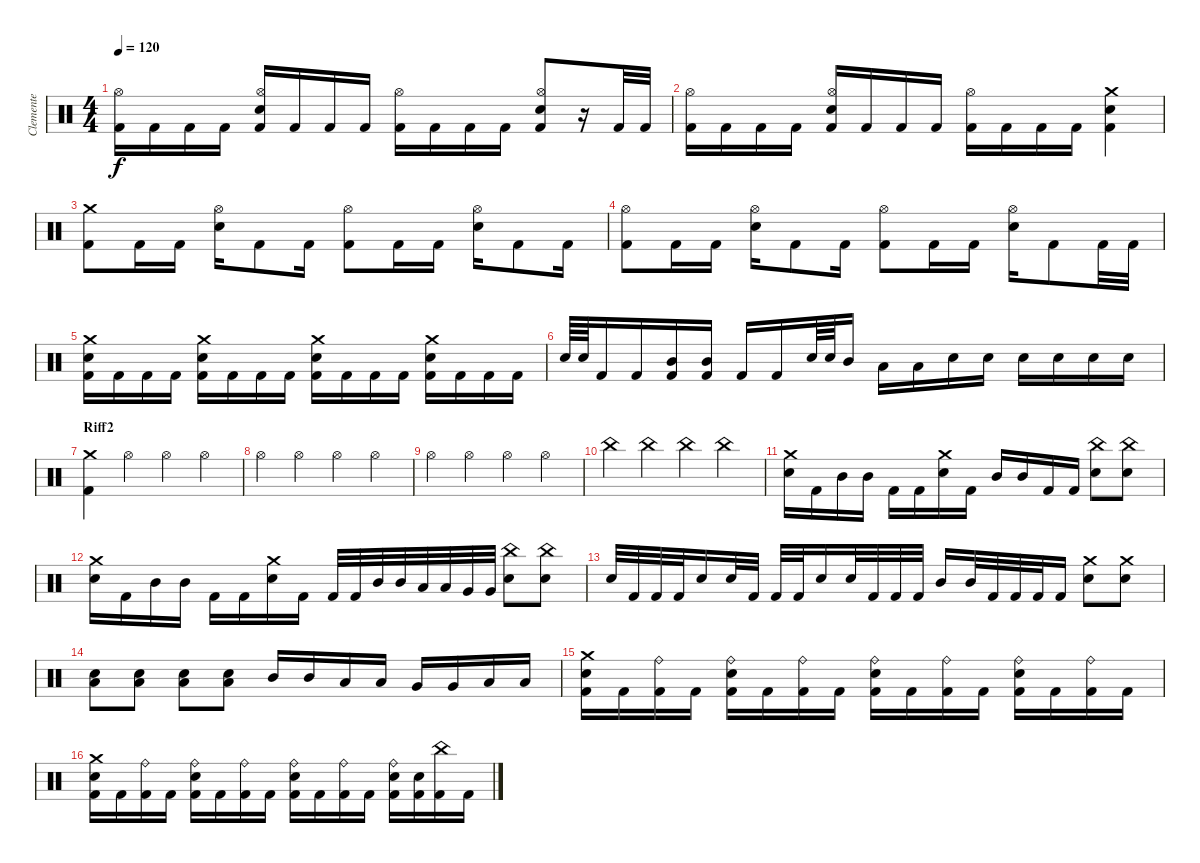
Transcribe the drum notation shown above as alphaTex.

\track ("Clemente" "Clemente") {instrument percussion}
\staff {score}
\articulation defaults
\ts (4 4)
\tempo 120
\clef neutral
\ks c
("Kick (hit) 2" "Hi-Hat (open)").16{dy f} "Kick (hit) 2".16 "Kick (hit) 2".16 "Kick (hit) 2".16 ("Kick (hit) 2" "Electric Snare (hit)" "Hi-Hat (open)").16 "Kick (hit) 2".16 "Kick (hit) 2".16 "Kick (hit) 2".16 ("Kick (hit) 2" "Hi-Hat (open)").16 "Kick (hit) 2".16 "Kick (hit) 2".16 "Kick (hit) 2".16 ("Kick (hit) 2" "Electric Snare (hit)" "Hi-Hat (open)").8 r.16 "Kick (hit) 2".32 "Kick (hit) 2".32 |
("Kick (hit) 2" "Hi-Hat (open)").16 "Kick (hit) 2".16 "Kick (hit) 2".16 "Kick (hit) 2".16 ("Kick (hit) 2" "Electric Snare (hit)" "Hi-Hat (open)").16 "Kick (hit) 2".16 "Kick (hit) 2".16 "Kick (hit) 2".16 ("Kick (hit) 2" "Hi-Hat (open)").16 "Kick (hit) 2".16 "Kick (hit) 2".16 "Kick (hit) 2".16 ("Kick (hit) 2" "Electric Snare (hit)" "Crash medium (hit)").4 |
("Kick (hit) 2" "Crash medium (hit)").8 "Kick (hit) 2".16 "Kick (hit) 2".16 ("Electric Snare (hit)" "Hi-Hat (open)").16 "Kick (hit) 2".8 "Kick (hit) 2".16 ("Kick (hit) 2" "Hi-Hat (open)").8 "Kick (hit) 2".16 "Kick (hit) 2".16 ("Electric Snare (hit)" "Hi-Hat (open)").16 "Kick (hit) 2".8 "Kick (hit) 2".16 |
("Kick (hit) 2" "Hi-Hat (open)").8 "Kick (hit) 2".16 "Kick (hit) 2".16 ("Electric Snare (hit)" "Hi-Hat (open)").16 "Kick (hit) 2".8 "Kick (hit) 2".16 ("Kick (hit) 2" "Hi-Hat (open)").8 "Kick (hit) 2".16 "Kick (hit) 2".16 ("Electric Snare (hit)" "Hi-Hat (open)").16 "Kick (hit) 2".8 "Kick (hit) 2".32 "Kick (hit) 2".32 |
("Kick (hit) 2" "Electric Snare (hit)" "Crash medium (hit)").16 "Kick (hit) 2".16 "Kick (hit) 2".16 "Kick (hit) 2".16 ("Kick (hit) 2" "Electric Snare (hit)" "Crash medium (hit)").16 "Kick (hit) 2".16 "Kick (hit) 2".16 "Kick (hit) 2".16 ("Kick (hit) 2" "Electric Snare (hit)" "Crash medium (hit)").16 "Kick (hit) 2".16 "Kick (hit) 2".16 "Kick (hit) 2".16 ("Kick (hit) 2" "Electric Snare (hit)" "Crash medium (hit)").16 "Kick (hit) 2".16 "Kick (hit) 2".16 "Kick (hit) 2".16 |
"Electric Snare (hit)".64 "Electric Snare (hit)".64 "Kick (hit) 2".16 "Kick (hit) 2".16 ("Kick (hit) 2" "Mid Tom (hit)").16 ("Kick (hit) 2" "Mid Tom (hit)").16 "Kick (hit) 2".16 "Kick (hit) 2".16 "Electric Snare (hit)".64 "Electric Snare (hit)".64 "Mid Tom (hit)".16 "Low Tom (hit)".16 "Low Tom (hit)".16 "Electric Snare (hit)".16 "Electric Snare (hit)".16 "Electric Snare (hit)".16 "Electric Snare (hit)".16 "Electric Snare (hit)".16 "Electric Snare (hit)".16 |
\section ("" "Riff2")
("Kick (hit) 2" "Crash medium (hit)").4 "Hi-Hat (open)".4 "Hi-Hat (open)".4 "Hi-Hat (open)".4 |
"Hi-Hat (open)".4 "Hi-Hat (open)".4 "Hi-Hat (open)".4 "Hi-Hat (open)".4 |
"Hi-Hat (open)".4 "Hi-Hat (open)".4 "Hi-Hat (open)".4 "Hi-Hat (open)".4 |
"China (hit)".4 "China (hit)".4 "China (hit)".4 "China (hit)".4 |
("Electric Snare (hit)" "Crash medium (hit)").16 "Kick (hit) 2".16 "Mid Tom (hit)".16 "Mid Tom (hit)".16 "Kick (hit) 2".16 "Kick (hit) 2".16 ("Electric Snare (hit)" "Crash medium (hit)").16 "Kick (hit) 2".16 "Mid Tom (hit)".16 "Mid Tom (hit)".16 "Kick (hit) 2".16 "Kick (hit) 2".16 ("Electric Snare (hit)" "China (hit)").8 ("Electric Snare (hit)" "China (hit)").8 |
("Electric Snare (hit)" "Crash medium (hit)").16 "Kick (hit) 2".16 "Mid Tom (hit)".16 "Mid Tom (hit)".16 "Kick (hit) 2".16 "Kick (hit) 2".16 ("Electric Snare (hit)" "Crash medium (hit)").16 "Kick (hit) 2".16 "Kick (hit) 2".32 "Kick (hit) 2".32 "Mid Tom (hit)".32 "Mid Tom (hit)".32 "Low Tom (hit)".32 "Low Tom (hit)".32 "Very Low Tom (hit)".32 "Very Low Tom (hit)".32 ("Electric Snare (hit)" "China (hit)").8 ("Electric Snare (hit)" "China (hit)").8 |
"Electric Snare (hit)".32 "Kick (hit) 2".32 "Kick (hit) 2".32 "Kick (hit) 2".32 "Electric Snare (hit)".16 "Electric Snare (hit)".32 "Kick (hit) 2".32 "Kick (hit) 2".32 "Kick (hit) 2".32 "Electric Snare (hit)".16 "Electric Snare (hit)".32 "Kick (hit) 2".32 "Kick (hit) 2".32 "Kick (hit) 2".32 "Mid Tom (hit)".16 "Mid Tom (hit)".32 "Kick (hit) 2".32 "Kick (hit) 2".32 "Kick (hit) 2".32 "Kick (hit) 2".16 ("Electric Snare (hit)" "Crash medium (hit)").8 ("Electric Snare (hit)" "Crash medium (hit)").8 |
("Electric Snare (hit)" "Low Floor Tom (hit)").8 ("Electric Snare (hit)" "Low Floor Tom (hit)").8 ("Electric Snare (hit)" "Low Floor Tom (hit)").8 ("Electric Snare (hit)" "Low Floor Tom (hit)").8 "Mid Tom (hit)".16 "Mid Tom (hit)".16 "Low Tom (hit)".16 "Low Tom (hit)".16 "Very Low Tom (hit)".16 "Very Low Tom (hit)".16 "Low Floor Tom (hit)".16 "Low Floor Tom (hit)".16 |
("Kick (hit) 2" "Electric Snare (hit)" "Crash medium (hit)").16 "Kick (hit) 2".16 ("Kick (hit) 2" "Ride (bell)").16 "Kick (hit) 2".16 ("Kick (hit) 2" "Electric Snare (hit)" "Ride (bell)").16 "Kick (hit) 2".16 ("Kick (hit) 2" "Ride (bell)").16 "Kick (hit) 2".16 ("Kick (hit) 2" "Electric Snare (hit)" "Ride (bell)").16 "Kick (hit) 2".16 ("Kick (hit) 2" "Ride (bell)").16 "Kick (hit) 2".16 ("Kick (hit) 2" "Electric Snare (hit)" "Ride (bell)").16 "Kick (hit) 2".16 ("Kick (hit) 2" "Ride (bell)").16 "Kick (hit) 2".16 |
("Kick (hit) 2" "Electric Snare (hit)" "Crash medium (hit)").16 "Kick (hit) 2".16 ("Kick (hit) 2" "Ride (bell)").16 "Kick (hit) 2".16 ("Kick (hit) 2" "Electric Snare (hit)" "Ride (bell)").16 "Kick (hit) 2".16 ("Kick (hit) 2" "Ride (bell)").16 "Kick (hit) 2".16 ("Kick (hit) 2" "Electric Snare (hit)" "Ride (bell)").16 "Kick (hit) 2".16 ("Kick (hit) 2" "Ride (bell)").16 "Kick (hit) 2".16 ("Kick (hit) 2" "Electric Snare (hit)" "Ride (bell)").16 ("Kick (hit) 2" "Electric Snare (hit)").16 ("Kick (hit) 2" "China (hit)").16 "Kick (hit) 2".16
